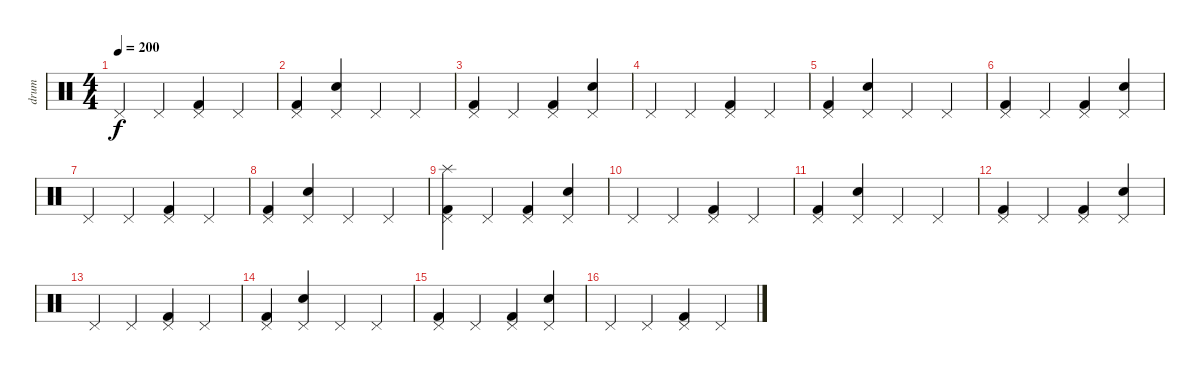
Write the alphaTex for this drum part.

\track ("drum" "drum") {instrument percussion}
\staff {score}
\articulation defaults
\ts (4 4)
\tempo 200
\clef neutral
\ks c "Pedal Hi-Hat (hit)".4{dy f} "Pedal Hi-Hat (hit)".4
("Pedal Hi-Hat (hit)" "Kick (hit) 2").4 "Pedal Hi-Hat (hit)".4 |
("Pedal Hi-Hat (hit)" "Kick (hit) 2").4 ("Pedal Hi-Hat (hit)" "Electric Snare (hit)").4 "Pedal Hi-Hat (hit)".4 "Pedal Hi-Hat (hit)".4 |
("Pedal Hi-Hat (hit)" "Kick (hit) 2").4 "Pedal Hi-Hat (hit)".4 ("Pedal Hi-Hat (hit)" "Kick (hit) 2").4 ("Pedal Hi-Hat (hit)" "Electric Snare (hit)").4 |
"Pedal Hi-Hat (hit)".4 "Pedal Hi-Hat (hit)".4 ("Pedal Hi-Hat (hit)" "Kick (hit) 2").4 "Pedal Hi-Hat (hit)".4 |
("Pedal Hi-Hat (hit)" "Kick (hit) 2").4 ("Pedal Hi-Hat (hit)" "Electric Snare (hit)").4 "Pedal Hi-Hat (hit)".4 "Pedal Hi-Hat (hit)".4 |
("Pedal Hi-Hat (hit)" "Kick (hit) 2").4 "Pedal Hi-Hat (hit)".4 ("Pedal Hi-Hat (hit)" "Kick (hit) 2").4 ("Pedal Hi-Hat (hit)" "Electric Snare (hit)").4 |
"Pedal Hi-Hat (hit)".4 "Pedal Hi-Hat (hit)".4 ("Pedal Hi-Hat (hit)" "Kick (hit) 2").4 "Pedal Hi-Hat (hit)".4 |
("Pedal Hi-Hat (hit)" "Kick (hit) 2").4 ("Pedal Hi-Hat (hit)" "Electric Snare (hit)").4 "Pedal Hi-Hat (hit)".4 "Pedal Hi-Hat (hit)".4 |
("Pedal Hi-Hat (hit)" "Splash (hit)" "Kick (hit) 2").4 "Pedal Hi-Hat (hit)".4 ("Pedal Hi-Hat (hit)" "Kick (hit) 2").4 ("Pedal Hi-Hat (hit)" "Electric Snare (hit)").4 |
"Pedal Hi-Hat (hit)".4 "Pedal Hi-Hat (hit)".4 ("Pedal Hi-Hat (hit)" "Kick (hit) 2").4 "Pedal Hi-Hat (hit)".4 |
("Pedal Hi-Hat (hit)" "Kick (hit) 2").4 ("Pedal Hi-Hat (hit)" "Electric Snare (hit)").4 "Pedal Hi-Hat (hit)".4 "Pedal Hi-Hat (hit)".4 |
("Pedal Hi-Hat (hit)" "Kick (hit) 2").4 "Pedal Hi-Hat (hit)".4 ("Pedal Hi-Hat (hit)" "Kick (hit) 2").4 ("Pedal Hi-Hat (hit)" "Electric Snare (hit)").4 |
"Pedal Hi-Hat (hit)".4 "Pedal Hi-Hat (hit)".4 ("Pedal Hi-Hat (hit)" "Kick (hit) 2").4 "Pedal Hi-Hat (hit)".4 |
("Pedal Hi-Hat (hit)" "Kick (hit) 2").4 ("Pedal Hi-Hat (hit)" "Electric Snare (hit)").4 "Pedal Hi-Hat (hit)".4 "Pedal Hi-Hat (hit)".4 |
("Pedal Hi-Hat (hit)" "Kick (hit) 2").4 "Pedal Hi-Hat (hit)".4 ("Pedal Hi-Hat (hit)" "Kick (hit) 2").4 ("Pedal Hi-Hat (hit)" "Electric Snare (hit)").4 |
"Pedal Hi-Hat (hit)".4 "Pedal Hi-Hat (hit)".4 ("Pedal Hi-Hat (hit)" "Kick (hit) 2").4 "Pedal Hi-Hat (hit)".4
